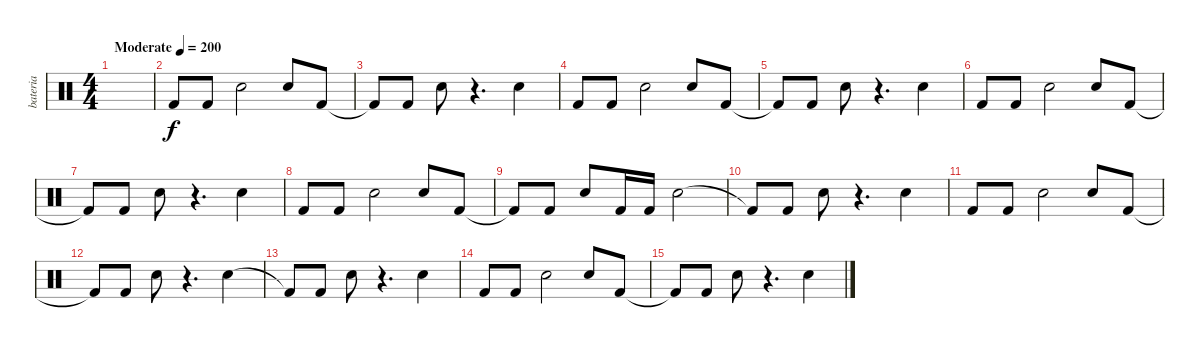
\track ("bateria" "bateria") {instrument percussion}
\staff {score}
\articulation defaults
\ts (4 4)
\tempo (200 "Moderate")
\clef neutral
\ks c
|
"Kick (hit) 2".8 "Kick (hit) 2".8 "Electric Snare (hit)".2 "Electric Snare (hit)".8 "Kick (hit) 2".8 |
"Kick (hit) 2"{t}.8 "Kick (hit) 2".8 "Electric Snare (hit)".8 r.4{d} "Electric Snare (hit)".4 |
"Kick (hit) 2".8 "Kick (hit) 2".8 "Electric Snare (hit)".2 "Electric Snare (hit)".8 "Kick (hit) 2".8 |
"Kick (hit) 2"{t}.8 "Kick (hit) 2".8 "Electric Snare (hit)".8 r.4{d} "Electric Snare (hit)".4 |
"Kick (hit) 2".8 "Kick (hit) 2".8 "Electric Snare (hit)".2 "Electric Snare (hit)".8 "Kick (hit) 2".8 |
"Kick (hit) 2"{t}.8 "Kick (hit) 2".8 "Electric Snare (hit)".8 r.4{d} "Electric Snare (hit)".4 |
"Kick (hit) 2".8 "Kick (hit) 2".8 "Electric Snare (hit)".2 "Electric Snare (hit)".8 "Kick (hit) 2".8 |
"Kick (hit) 2"{t}.8 "Kick (hit) 2".8 "Electric Snare (hit)".8 "Kick (hit) 2".16 "Kick (hit) 2".16 "Electric Snare (hit)".2 |
"Kick (hit) 2"{t}.8 "Kick (hit) 2".8 "Electric Snare (hit)".8 r.4{d} "Electric Snare (hit)".4 |
"Kick (hit) 2".8 "Kick (hit) 2".8 "Electric Snare (hit)".2 "Electric Snare (hit)".8 "Kick (hit) 2".8 |
"Kick (hit) 2"{t}.8 "Kick (hit) 2".8 "Electric Snare (hit)".8 r.4{d} "Electric Snare (hit)".4 |
"Kick (hit) 2"{t}.8 "Kick (hit) 2".8 "Electric Snare (hit)".8 r.4{d} "Electric Snare (hit)".4 |
"Kick (hit) 2".8 "Kick (hit) 2".8 "Electric Snare (hit)".2 "Electric Snare (hit)".8 "Kick (hit) 2".8 |
"Kick (hit) 2"{t}.8 "Kick (hit) 2".8 "Electric Snare (hit)".8 r.4{d} "Electric Snare (hit)".4
